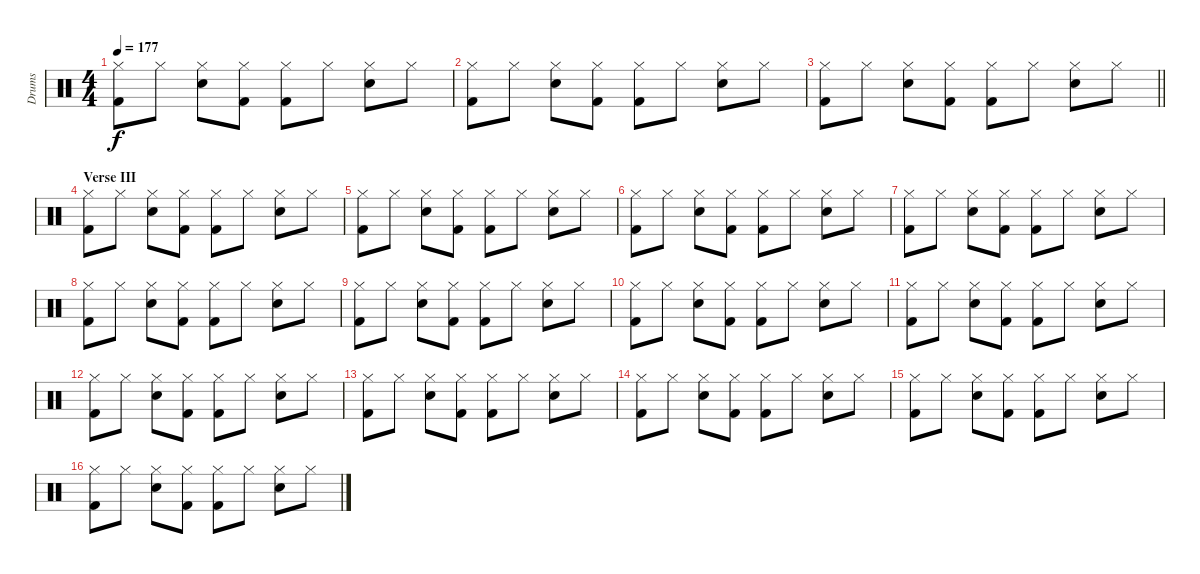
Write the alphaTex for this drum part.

\track ("Drums" "Drums") {instrument percussion}
\staff {score}
\articulation defaults
\ts (4 4)
\tempo 177
\clef neutral
\ks c
("Hi-Hat (closed)" "Kick (hit) 2").8{dy f} "Hi-Hat (closed)".8 ("Hi-Hat (closed)" "Snare (hit) 2").8 ("Hi-Hat (closed)" "Kick (hit) 2").8 ("Hi-Hat (closed)" "Kick (hit) 2").8 "Hi-Hat (closed)".8 ("Hi-Hat (closed)" "Snare (hit) 2").8 "Hi-Hat (closed)".8 |
("Hi-Hat (closed)" "Kick (hit) 2").8 "Hi-Hat (closed)".8 ("Hi-Hat (closed)" "Snare (hit) 2").8 ("Hi-Hat (closed)" "Kick (hit) 2").8 ("Hi-Hat (closed)" "Kick (hit) 2").8 "Hi-Hat (closed)".8 ("Hi-Hat (closed)" "Snare (hit) 2").8 "Hi-Hat (closed)".8 |
\barLineRight lightlight
("Hi-Hat (closed)" "Kick (hit) 2").8 "Hi-Hat (closed)".8 ("Hi-Hat (closed)" "Snare (hit) 2").8 ("Hi-Hat (closed)" "Kick (hit) 2").8 ("Hi-Hat (closed)" "Kick (hit) 2").8 "Hi-Hat (closed)".8 ("Hi-Hat (closed)" "Snare (hit) 2").8 "Hi-Hat (closed)".8 |
\section ("" "Verse III")
("Hi-Hat (closed)" "Kick (hit) 2").8 "Hi-Hat (closed)".8 ("Hi-Hat (closed)" "Snare (hit) 2").8 ("Hi-Hat (closed)" "Kick (hit) 2").8 ("Hi-Hat (closed)" "Kick (hit) 2").8 "Hi-Hat (closed)".8 ("Hi-Hat (closed)" "Snare (hit) 2").8 "Hi-Hat (closed)".8 |
("Hi-Hat (closed)" "Kick (hit) 2").8 "Hi-Hat (closed)".8 ("Hi-Hat (closed)" "Snare (hit) 2").8 ("Hi-Hat (closed)" "Kick (hit) 2").8 ("Hi-Hat (closed)" "Kick (hit) 2").8 "Hi-Hat (closed)".8 ("Hi-Hat (closed)" "Snare (hit) 2").8 "Hi-Hat (closed)".8 |
("Hi-Hat (closed)" "Kick (hit) 2").8 "Hi-Hat (closed)".8 ("Hi-Hat (closed)" "Snare (hit) 2").8 ("Hi-Hat (closed)" "Kick (hit) 2").8 ("Hi-Hat (closed)" "Kick (hit) 2").8 "Hi-Hat (closed)".8 ("Hi-Hat (closed)" "Snare (hit) 2").8 "Hi-Hat (closed)".8 |
("Hi-Hat (closed)" "Kick (hit) 2").8 "Hi-Hat (closed)".8 ("Hi-Hat (closed)" "Snare (hit) 2").8 ("Hi-Hat (closed)" "Kick (hit) 2").8 ("Hi-Hat (closed)" "Kick (hit) 2").8 "Hi-Hat (closed)".8 ("Hi-Hat (closed)" "Snare (hit) 2").8 "Hi-Hat (closed)".8 |
("Hi-Hat (closed)" "Kick (hit) 2").8 "Hi-Hat (closed)".8 ("Hi-Hat (closed)" "Snare (hit) 2").8 ("Hi-Hat (closed)" "Kick (hit) 2").8 ("Hi-Hat (closed)" "Kick (hit) 2").8 "Hi-Hat (closed)".8 ("Hi-Hat (closed)" "Snare (hit) 2").8 "Hi-Hat (closed)".8 |
("Hi-Hat (closed)" "Kick (hit) 2").8 "Hi-Hat (closed)".8 ("Hi-Hat (closed)" "Snare (hit) 2").8 ("Hi-Hat (closed)" "Kick (hit) 2").8 ("Hi-Hat (closed)" "Kick (hit) 2").8 "Hi-Hat (closed)".8 ("Hi-Hat (closed)" "Snare (hit) 2").8 "Hi-Hat (closed)".8 |
("Hi-Hat (closed)" "Kick (hit) 2").8 "Hi-Hat (closed)".8 ("Hi-Hat (closed)" "Snare (hit) 2").8 ("Hi-Hat (closed)" "Kick (hit) 2").8 ("Hi-Hat (closed)" "Kick (hit) 2").8 "Hi-Hat (closed)".8 ("Hi-Hat (closed)" "Snare (hit) 2").8 "Hi-Hat (closed)".8 |
("Hi-Hat (closed)" "Kick (hit) 2").8 "Hi-Hat (closed)".8 ("Hi-Hat (closed)" "Snare (hit) 2").8 ("Hi-Hat (closed)" "Kick (hit) 2").8 ("Hi-Hat (closed)" "Kick (hit) 2").8 "Hi-Hat (closed)".8 ("Hi-Hat (closed)" "Snare (hit) 2").8 "Hi-Hat (closed)".8 |
("Hi-Hat (closed)" "Kick (hit) 2").8 "Hi-Hat (closed)".8 ("Hi-Hat (closed)" "Snare (hit) 2").8 ("Hi-Hat (closed)" "Kick (hit) 2").8 ("Hi-Hat (closed)" "Kick (hit) 2").8 "Hi-Hat (closed)".8 ("Hi-Hat (closed)" "Snare (hit) 2").8 "Hi-Hat (closed)".8 |
("Hi-Hat (closed)" "Kick (hit) 2").8 "Hi-Hat (closed)".8 ("Hi-Hat (closed)" "Snare (hit) 2").8 ("Hi-Hat (closed)" "Kick (hit) 2").8 ("Hi-Hat (closed)" "Kick (hit) 2").8 "Hi-Hat (closed)".8 ("Hi-Hat (closed)" "Snare (hit) 2").8 "Hi-Hat (closed)".8 |
("Hi-Hat (closed)" "Kick (hit) 2").8 "Hi-Hat (closed)".8 ("Hi-Hat (closed)" "Snare (hit) 2").8 ("Hi-Hat (closed)" "Kick (hit) 2").8 ("Hi-Hat (closed)" "Kick (hit) 2").8 "Hi-Hat (closed)".8 ("Hi-Hat (closed)" "Snare (hit) 2").8 "Hi-Hat (closed)".8 |
("Hi-Hat (closed)" "Kick (hit) 2").8 "Hi-Hat (closed)".8 ("Hi-Hat (closed)" "Snare (hit) 2").8 ("Hi-Hat (closed)" "Kick (hit) 2").8 ("Hi-Hat (closed)" "Kick (hit) 2").8 "Hi-Hat (closed)".8 ("Hi-Hat (closed)" "Snare (hit) 2").8 "Hi-Hat (closed)".8 |
("Hi-Hat (closed)" "Kick (hit) 2").8 "Hi-Hat (closed)".8 ("Hi-Hat (closed)" "Snare (hit) 2").8 ("Hi-Hat (closed)" "Kick (hit) 2").8 ("Hi-Hat (closed)" "Kick (hit) 2").8 "Hi-Hat (closed)".8 ("Hi-Hat (closed)" "Snare (hit) 2").8 "Hi-Hat (closed)".8
